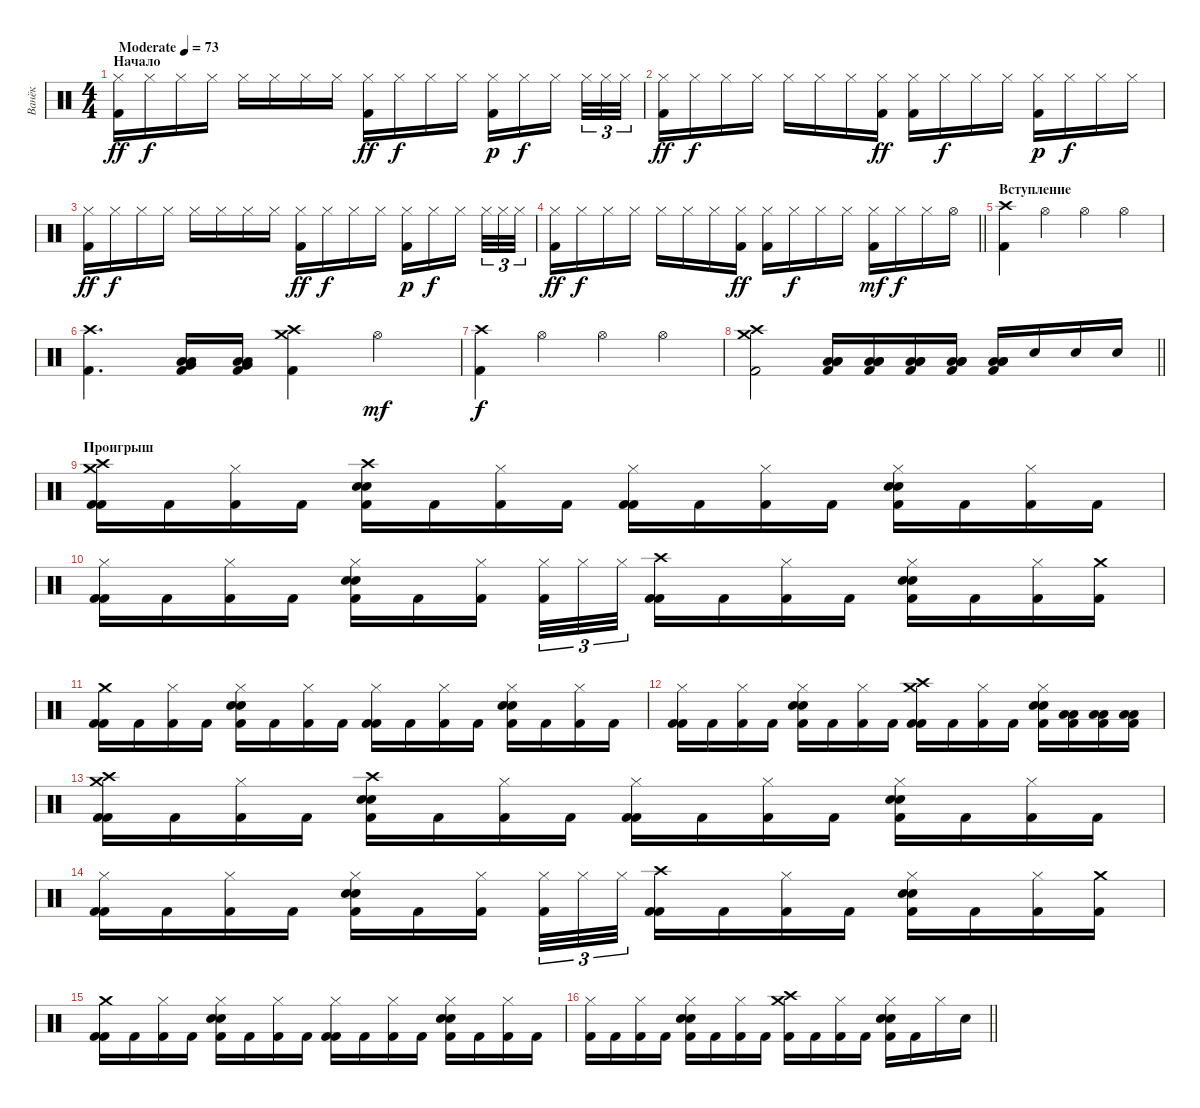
\track ("Ванёк" "Ванёк") {instrument percussion}
\staff {score}
\articulation defaults
\ts (4 4)
\section ("" "Начало")
\tempo (73 "Moderate")
\clef neutral
\ks c
("Hi-Hat (closed)" "Kick (hit) 2").16{dy ff} "Hi-Hat (closed)".16{dy f} "Hi-Hat (closed)".16 "Hi-Hat (closed)".16 "Hi-Hat (closed)".16 "Hi-Hat (closed)".16 "Hi-Hat (closed)".16 "Hi-Hat (closed)".16 ("Hi-Hat (closed)" "Kick (hit) 2").16{dy ff} "Hi-Hat (closed)".16{dy f} "Hi-Hat (closed)".16 "Hi-Hat (closed)".16 ("Hi-Hat (closed)" "Kick (hit) 2").16{dy p} "Hi-Hat (closed)".16{dy f} "Hi-Hat (closed)".16{beam splitsecondary} "Hi-Hat (closed)".32{tu (3 2)} "Hi-Hat (closed)".32{tu (3 2)} "Hi-Hat (closed)".32{tu (3 2)} |
("Hi-Hat (closed)" "Kick (hit) 2").16{dy ff} "Hi-Hat (closed)".16{dy f} "Hi-Hat (closed)".16 "Hi-Hat (closed)".16 "Hi-Hat (closed)".16 "Hi-Hat (closed)".16 "Hi-Hat (closed)".16 ("Hi-Hat (closed)" "Kick (hit) 2").16{dy ff} ("Hi-Hat (closed)" "Kick (hit) 2").16 "Hi-Hat (closed)".16{dy f} "Hi-Hat (closed)".16 "Hi-Hat (closed)".16 ("Hi-Hat (closed)" "Kick (hit) 2").16{dy p} "Hi-Hat (closed)".16{dy f} "Hi-Hat (closed)".16 "Hi-Hat (closed)".16 |
("Hi-Hat (closed)" "Kick (hit) 2").16{dy ff} "Hi-Hat (closed)".16{dy f} "Hi-Hat (closed)".16 "Hi-Hat (closed)".16 "Hi-Hat (closed)".16 "Hi-Hat (closed)".16 "Hi-Hat (closed)".16 "Hi-Hat (closed)".16 ("Hi-Hat (closed)" "Kick (hit) 2").16{dy ff} "Hi-Hat (closed)".16{dy f} "Hi-Hat (closed)".16 "Hi-Hat (closed)".16 ("Hi-Hat (closed)" "Kick (hit) 2").16{dy p} "Hi-Hat (closed)".16{dy f} "Hi-Hat (closed)".16{beam splitsecondary} "Hi-Hat (closed)".32{tu (3 2)} "Hi-Hat (closed)".32{tu (3 2)} "Hi-Hat (closed)".32{tu (3 2)} |
\barLineRight lightlight
("Hi-Hat (closed)" "Kick (hit) 2").16{dy ff} "Hi-Hat (closed)".16{dy f} "Hi-Hat (closed)".16 "Hi-Hat (closed)".16 "Hi-Hat (closed)".16 "Hi-Hat (closed)".16 "Hi-Hat (closed)".16 ("Hi-Hat (closed)" "Kick (hit) 2").16{dy ff} ("Hi-Hat (closed)" "Kick (hit) 2").16 "Hi-Hat (closed)".16{dy f} "Hi-Hat (closed)".16 "Hi-Hat (closed)".16 ("Hi-Hat (closed)" "Kick (hit) 2").16{dy mf} "Hi-Hat (closed)".16{dy f} "Hi-Hat (closed)".16 "Hi-Hat (open)".16 |
\section ("" "Вступление")
("Crash high (hit)" "Kick (hit) 2").4 "Hi-Hat (open)".4 "Hi-Hat (open)".4 "Hi-Hat (open)".4 |
("Crash high (hit)" "Kick (hit) 2").4{d} ("Very Low Tom (hit)" "Low Floor Tom (hit)" "Low Floor Tom (hit)" "Kick (hit) 2").16 ("Very Low Tom (hit)" "Low Floor Tom (hit)" "Low Floor Tom (hit)" "Kick (hit) 2").16 ("Crash medium (hit)" "Crash high (hit)" "Kick (hit) 2").4 "Hi-Hat (open)".4{dy mf} |
("Crash high (hit)" "Kick (hit) 2").4{dy f} "Hi-Hat (open)".4 "Hi-Hat (open)".4 "Hi-Hat (open)".4 |
\barLineRight lightlight
("Crash high (hit)" "Crash medium (hit)" "Kick (hit) 2").2 ("Low Floor Tom (hit)" "Low Tom (hit)" "Low Floor Tom (hit)" "Kick (hit) 2").16 ("Low Floor Tom (hit)" "Low Tom (hit)" "Low Floor Tom (hit)" "Kick (hit) 2").16 ("Low Floor Tom (hit)" "Low Tom (hit)" "Low Floor Tom (hit)" "Kick (hit) 2").16 ("Low Floor Tom (hit)" "Low Tom (hit)" "Low Floor Tom (hit)" "Kick (hit) 2").16 ("Low Floor Tom (hit)" "Low Tom (hit)" "Low Floor Tom (hit)" "Kick (hit) 2").16 "Snare (hit) 2".16 "Snare (hit) 2".16 "Snare (hit) 2".16 |
\section ("" "Проигрыш")
("Crash high (hit)" "Crash medium (hit)" "Kick (hit) 2" "Kick (hit) 2").16 "Kick (hit) 2".16 ("Hi-Hat (closed)" "Kick (hit) 2").16 "Kick (hit) 2".16 ("Crash high (hit)" "Snare (hit) 2" "Snare (hit) 2" "Kick (hit) 2").16 "Kick (hit) 2".16 ("Hi-Hat (closed)" "Kick (hit) 2").16 "Kick (hit) 2".16 ("Hi-Hat (closed)" "Kick (hit) 2" "Kick (hit) 2").16 "Kick (hit) 2".16 ("Hi-Hat (closed)" "Kick (hit) 2").16 "Kick (hit) 2".16 ("Hi-Hat (closed)" "Snare (hit) 2" "Snare (hit) 2" "Kick (hit) 2").16 "Kick (hit) 2".16 ("Hi-Hat (closed)" "Kick (hit) 2").16 "Kick (hit) 2".16 |
("Hi-Hat (closed)" "Kick (hit) 2" "Kick (hit) 2").16 "Kick (hit) 2".16 ("Hi-Hat (closed)" "Kick (hit) 2").16 "Kick (hit) 2".16 ("Hi-Hat (closed)" "Snare (hit) 2" "Snare (hit) 2" "Kick (hit) 2").16 "Kick (hit) 2".16 ("Hi-Hat (closed)" "Kick (hit) 2").16{beam splitsecondary} ("Hi-Hat (closed)" "Kick (hit) 2").32{tu (3 2)} "Hi-Hat (closed)".32{tu (3 2)} "Hi-Hat (closed)".32{tu (3 2)} ("Crash high (hit)" "Kick (hit) 2" "Kick (hit) 2").16 "Kick (hit) 2".16 ("Hi-Hat (closed)" "Kick (hit) 2").16 "Kick (hit) 2".16 ("Hi-Hat (closed)" "Snare (hit) 2" "Snare (hit) 2" "Kick (hit) 2").16 "Kick (hit) 2".16 ("Hi-Hat (closed)" "Kick (hit) 2").16 ("Crash medium (hit)" "Kick (hit) 2").16 |
("Crash medium (hit)" "Kick (hit) 2" "Kick (hit) 2").16 "Kick (hit) 2".16 ("Hi-Hat (closed)" "Kick (hit) 2").16 "Kick (hit) 2".16 ("Hi-Hat (closed)" "Snare (hit) 2" "Snare (hit) 2" "Kick (hit) 2").16 "Kick (hit) 2".16 ("Hi-Hat (closed)" "Kick (hit) 2").16 "Kick (hit) 2".16 ("Hi-Hat (closed)" "Kick (hit) 2" "Kick (hit) 2").16 "Kick (hit) 2".16 ("Hi-Hat (closed)" "Kick (hit) 2").16 "Kick (hit) 2".16 ("Hi-Hat (closed)" "Snare (hit) 2" "Snare (hit) 2" "Kick (hit) 2").16 "Kick (hit) 2".16 ("Hi-Hat (closed)" "Kick (hit) 2").16 "Kick (hit) 2".16 |
("Hi-Hat (closed)" "Kick (hit) 2" "Kick (hit) 2").16 "Kick (hit) 2".16 ("Hi-Hat (closed)" "Kick (hit) 2").16 "Kick (hit) 2".16 ("Hi-Hat (closed)" "Snare (hit) 2" "Snare (hit) 2" "Kick (hit) 2").16 "Kick (hit) 2".16 ("Hi-Hat (closed)" "Kick (hit) 2").16 "Kick (hit) 2".16 ("Crash high (hit)" "Crash medium (hit)" "Kick (hit) 2" "Kick (hit) 2").16 "Kick (hit) 2".16 ("Hi-Hat (closed)" "Kick (hit) 2").16 "Kick (hit) 2".16 ("Hi-Hat (closed)" "Snare (hit) 2" "Snare (hit) 2" "Kick (hit) 2").16 ("Low Floor Tom (hit)" "Low Tom (hit)" "Kick (hit) 2").16 ("Low Floor Tom (hit)" "Low Tom (hit)" "Kick (hit) 2").16 ("Low Floor Tom (hit)" "Low Tom (hit)" "Kick (hit) 2").16 |
("Crash high (hit)" "Crash medium (hit)" "Kick (hit) 2" "Kick (hit) 2").16 "Kick (hit) 2".16 ("Hi-Hat (closed)" "Kick (hit) 2").16 "Kick (hit) 2".16 ("Crash high (hit)" "Snare (hit) 2" "Snare (hit) 2" "Kick (hit) 2").16 "Kick (hit) 2".16 ("Hi-Hat (closed)" "Kick (hit) 2").16 "Kick (hit) 2".16 ("Hi-Hat (closed)" "Kick (hit) 2" "Kick (hit) 2").16 "Kick (hit) 2".16 ("Hi-Hat (closed)" "Kick (hit) 2").16 "Kick (hit) 2".16 ("Hi-Hat (closed)" "Snare (hit) 2" "Snare (hit) 2" "Kick (hit) 2").16 "Kick (hit) 2".16 ("Hi-Hat (closed)" "Kick (hit) 2").16 "Kick (hit) 2".16 |
("Hi-Hat (closed)" "Kick (hit) 2" "Kick (hit) 2").16 "Kick (hit) 2".16 ("Hi-Hat (closed)" "Kick (hit) 2").16 "Kick (hit) 2".16 ("Hi-Hat (closed)" "Snare (hit) 2" "Snare (hit) 2" "Kick (hit) 2").16 "Kick (hit) 2".16 ("Hi-Hat (closed)" "Kick (hit) 2").16{beam splitsecondary} ("Hi-Hat (closed)" "Kick (hit) 2").32{tu (3 2)} "Hi-Hat (closed)".32{tu (3 2)} "Hi-Hat (closed)".32{tu (3 2)} ("Crash high (hit)" "Kick (hit) 2" "Kick (hit) 2").16 "Kick (hit) 2".16 ("Hi-Hat (closed)" "Kick (hit) 2").16 "Kick (hit) 2".16 ("Hi-Hat (closed)" "Snare (hit) 2" "Snare (hit) 2" "Kick (hit) 2").16 "Kick (hit) 2".16 ("Hi-Hat (closed)" "Kick (hit) 2").16 ("Crash medium (hit)" "Kick (hit) 2").16 |
("Crash medium (hit)" "Kick (hit) 2" "Kick (hit) 2").16 "Kick (hit) 2".16 ("Hi-Hat (closed)" "Kick (hit) 2").16 "Kick (hit) 2".16 ("Hi-Hat (closed)" "Snare (hit) 2" "Snare (hit) 2" "Kick (hit) 2").16 "Kick (hit) 2".16 ("Hi-Hat (closed)" "Kick (hit) 2").16 "Kick (hit) 2".16 ("Hi-Hat (closed)" "Kick (hit) 2" "Kick (hit) 2").16 "Kick (hit) 2".16 ("Hi-Hat (closed)" "Kick (hit) 2").16 "Kick (hit) 2".16 ("Hi-Hat (closed)" "Snare (hit) 2" "Snare (hit) 2" "Kick (hit) 2").16 "Kick (hit) 2".16 ("Hi-Hat (closed)" "Kick (hit) 2").16 "Kick (hit) 2".16 |
\barLineRight lightlight
("Hi-Hat (closed)" "Kick (hit) 2").16 "Kick (hit) 2".16 ("Hi-Hat (closed)" "Kick (hit) 2").16 "Kick (hit) 2".16 ("Hi-Hat (closed)" "Snare (hit) 2" "Snare (hit) 2" "Kick (hit) 2").16 "Kick (hit) 2".16 ("Hi-Hat (closed)" "Kick (hit) 2").16 "Kick (hit) 2".16 ("Crash high (hit)" "Crash medium (hit)" "Kick (hit) 2").16 "Kick (hit) 2".16 ("Hi-Hat (closed)" "Kick (hit) 2").16 "Kick (hit) 2".16 ("Hi-Hat (closed)" "Snare (hit) 2" "Snare (hit) 2" "Kick (hit) 2").16 "Kick (hit) 2".16 "Hi-Hat (closed)".16 "Snare (hit) 2".16
